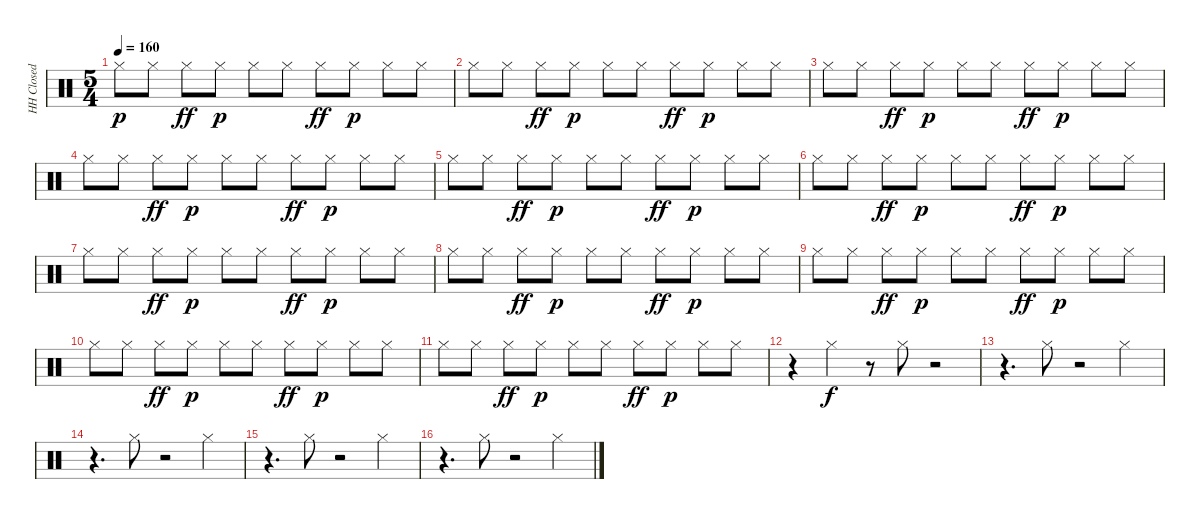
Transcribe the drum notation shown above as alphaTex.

\track ("HH Closed" "HH Closed") {instrument percussion}
\staff {score}
\articulation defaults
\ts (5 4)
\tempo 160
\clef neutral
\ks c "Hi-Hat (closed)".8{dy p} "Hi-Hat (closed)".8 "Hi-Hat (closed)".8{dy ff} "Hi-Hat (closed)".8{dy p} "Hi-Hat (closed)".8 "Hi-Hat (closed)".8 "Hi-Hat (closed)".8{dy ff} "Hi-Hat (closed)".8{dy p} "Hi-Hat (closed)".8 "Hi-Hat (closed)".8
|
"Hi-Hat (closed)".8 "Hi-Hat (closed)".8 "Hi-Hat (closed)".8{dy ff} "Hi-Hat (closed)".8{dy p} "Hi-Hat (closed)".8 "Hi-Hat (closed)".8 "Hi-Hat (closed)".8{dy ff} "Hi-Hat (closed)".8{dy p} "Hi-Hat (closed)".8 "Hi-Hat (closed)".8 |
"Hi-Hat (closed)".8 "Hi-Hat (closed)".8 "Hi-Hat (closed)".8{dy ff} "Hi-Hat (closed)".8{dy p} "Hi-Hat (closed)".8 "Hi-Hat (closed)".8 "Hi-Hat (closed)".8{dy ff} "Hi-Hat (closed)".8{dy p} "Hi-Hat (closed)".8 "Hi-Hat (closed)".8 |
"Hi-Hat (closed)".8 "Hi-Hat (closed)".8 "Hi-Hat (closed)".8{dy ff} "Hi-Hat (closed)".8{dy p} "Hi-Hat (closed)".8 "Hi-Hat (closed)".8 "Hi-Hat (closed)".8{dy ff} "Hi-Hat (closed)".8{dy p} "Hi-Hat (closed)".8 "Hi-Hat (closed)".8 |
"Hi-Hat (closed)".8 "Hi-Hat (closed)".8 "Hi-Hat (closed)".8{dy ff} "Hi-Hat (closed)".8{dy p} "Hi-Hat (closed)".8 "Hi-Hat (closed)".8 "Hi-Hat (closed)".8{dy ff} "Hi-Hat (closed)".8{dy p} "Hi-Hat (closed)".8 "Hi-Hat (closed)".8 |
"Hi-Hat (closed)".8 "Hi-Hat (closed)".8 "Hi-Hat (closed)".8{dy ff} "Hi-Hat (closed)".8{dy p} "Hi-Hat (closed)".8 "Hi-Hat (closed)".8 "Hi-Hat (closed)".8{dy ff} "Hi-Hat (closed)".8{dy p} "Hi-Hat (closed)".8 "Hi-Hat (closed)".8 |
"Hi-Hat (closed)".8 "Hi-Hat (closed)".8 "Hi-Hat (closed)".8{dy ff} "Hi-Hat (closed)".8{dy p} "Hi-Hat (closed)".8 "Hi-Hat (closed)".8 "Hi-Hat (closed)".8{dy ff} "Hi-Hat (closed)".8{dy p} "Hi-Hat (closed)".8 "Hi-Hat (closed)".8 |
"Hi-Hat (closed)".8 "Hi-Hat (closed)".8 "Hi-Hat (closed)".8{dy ff} "Hi-Hat (closed)".8{dy p} "Hi-Hat (closed)".8 "Hi-Hat (closed)".8 "Hi-Hat (closed)".8{dy ff} "Hi-Hat (closed)".8{dy p} "Hi-Hat (closed)".8 "Hi-Hat (closed)".8 |
"Hi-Hat (closed)".8 "Hi-Hat (closed)".8 "Hi-Hat (closed)".8{dy ff} "Hi-Hat (closed)".8{dy p} "Hi-Hat (closed)".8 "Hi-Hat (closed)".8 "Hi-Hat (closed)".8{dy ff} "Hi-Hat (closed)".8{dy p} "Hi-Hat (closed)".8 "Hi-Hat (closed)".8 |
"Hi-Hat (closed)".8 "Hi-Hat (closed)".8 "Hi-Hat (closed)".8{dy ff} "Hi-Hat (closed)".8{dy p} "Hi-Hat (closed)".8 "Hi-Hat (closed)".8 "Hi-Hat (closed)".8{dy ff} "Hi-Hat (closed)".8{dy p} "Hi-Hat (closed)".8 "Hi-Hat (closed)".8 |
"Hi-Hat (closed)".8 "Hi-Hat (closed)".8 "Hi-Hat (closed)".8{dy ff} "Hi-Hat (closed)".8{dy p} "Hi-Hat (closed)".8 "Hi-Hat (closed)".8 "Hi-Hat (closed)".8{dy ff} "Hi-Hat (closed)".8{dy p} "Hi-Hat (closed)".8 "Hi-Hat (closed)".8 |
r.4 "Hi-Hat (closed)".4{dy f} r.8 "Hi-Hat (closed)".8 r.2 |
r.4{d} "Hi-Hat (closed)".8 r.2 "Hi-Hat (closed)".4 |
r.4{d} "Hi-Hat (closed)".8 r.2 "Hi-Hat (closed)".4 |
r.4{d} "Hi-Hat (closed)".8 r.2 "Hi-Hat (closed)".4 |
r.4{d} "Hi-Hat (closed)".8 r.2 "Hi-Hat (closed)".4
